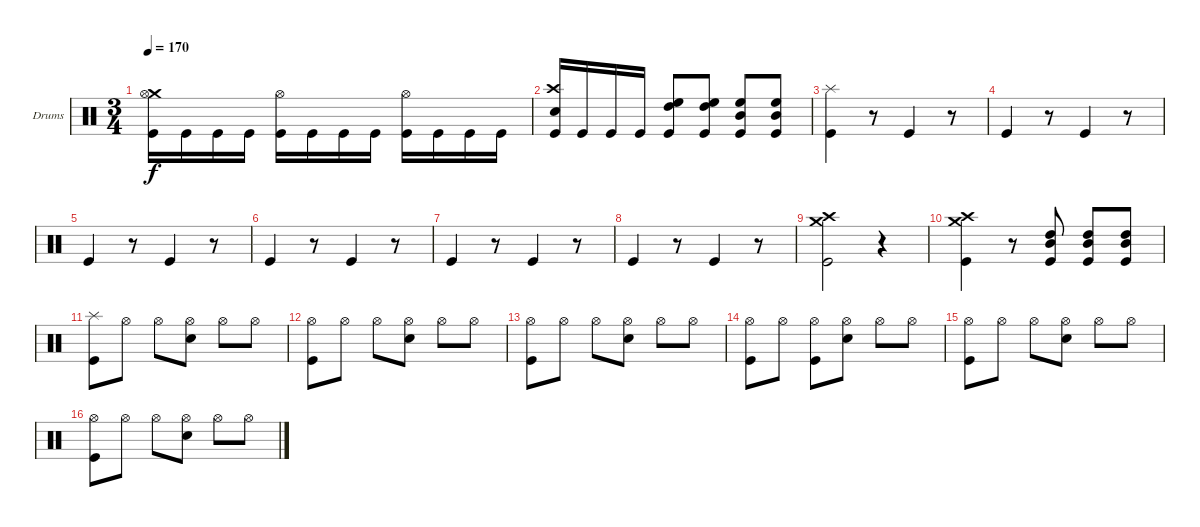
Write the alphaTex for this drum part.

\bracketExtendMode groupsimilarinstruments
\firstSystemTrackNameOrientation horizontal
\otherSystemsTrackNameOrientation horizontal
\track ("Drumkit" "Drums") {instrument percussion}
\staff {score}
\articulation defaults
\ts (3 4)
\tempo 170
\clef neutral
\ks c
("Crash medium (hit)" "Hi-Hat (open)" "Kick (hit)").16{dy f} "Kick (hit)".16 "Kick (hit)".16 "Kick (hit)".16 ("Hi-Hat (open)" "Kick (hit)").16 "Kick (hit)".16 "Kick (hit)".16 "Kick (hit)".16 ("Hi-Hat (open)" "Kick (hit)").16 "Kick (hit)".16 "Kick (hit)".16 "Kick (hit)".16 |
("Crash high (hit)" "Snare (hit) 2" "Kick (hit)").16 "Kick (hit)".16 "Kick (hit)".16 "Kick (hit)".16 ("High Floor Tom (hit)" "High Tom (hit)" "Kick (hit)").8 ("High Floor Tom (hit)" "High Tom (hit)" "Kick (hit)").8 ("High Floor Tom (hit)" "Mid Tom (hit)" "Kick (hit)").8 ("High Floor Tom (hit)" "Mid Tom (hit)" "Kick (hit)").8 |
("Splash (hit)" "Kick (hit)").4 r.8 "Kick (hit)".4 r.8 |
"Kick (hit)".4 r.8 "Kick (hit)".4 r.8 |
"Kick (hit)".4 r.8 "Kick (hit)".4 r.8 |
"Kick (hit)".4 r.8 "Kick (hit)".4 r.8 |
"Kick (hit)".4 r.8 "Kick (hit)".4 r.8 |
"Kick (hit)".4 r.8 "Kick (hit)".4 r.8 |
("Crash medium (hit)" "Crash high (hit)" "Kick (hit)").2 r.4 |
("Crash medium (hit)" "Crash high (hit)" "Kick (hit)").4 r.8 ("High Tom (hit)" "Mid Tom (hit)" "Kick (hit)").8 ("High Tom (hit)" "Mid Tom (hit)" "Kick (hit)").8 ("High Tom (hit)" "Mid Tom (hit)" "Kick (hit)").8 |
("Splash (hit)" "Kick (hit)").8 "Hi-Hat (open)".8 "Hi-Hat (open)".8 ("Hi-Hat (open)" "Snare (hit) 2").8 "Hi-Hat (open)".8 "Hi-Hat (open)".8 |
("Hi-Hat (open)" "Kick (hit)").8 "Hi-Hat (open)".8 "Hi-Hat (open)".8 ("Hi-Hat (open)" "Snare (hit) 2").8 "Hi-Hat (open)".8 "Hi-Hat (open)".8 |
("Hi-Hat (open)" "Kick (hit)").8 "Hi-Hat (open)".8 "Hi-Hat (open)".8 ("Hi-Hat (open)" "Snare (hit) 2").8 "Hi-Hat (open)".8 "Hi-Hat (open)".8 |
("Hi-Hat (open)" "Kick (hit)").8 "Hi-Hat (open)".8 ("Hi-Hat (open)" "Kick (hit)").8 ("Hi-Hat (open)" "Snare (hit) 2").8 "Hi-Hat (open)".8 "Hi-Hat (open)".8 |
("Hi-Hat (open)" "Kick (hit)").8 "Hi-Hat (open)".8 "Hi-Hat (open)".8 ("Hi-Hat (open)" "Snare (hit) 2").8 "Hi-Hat (open)".8 "Hi-Hat (open)".8 |
("Hi-Hat (open)" "Kick (hit)").8 "Hi-Hat (open)".8 "Hi-Hat (open)".8 ("Hi-Hat (open)" "Snare (hit) 2").8 "Hi-Hat (open)".8 "Hi-Hat (open)".8
